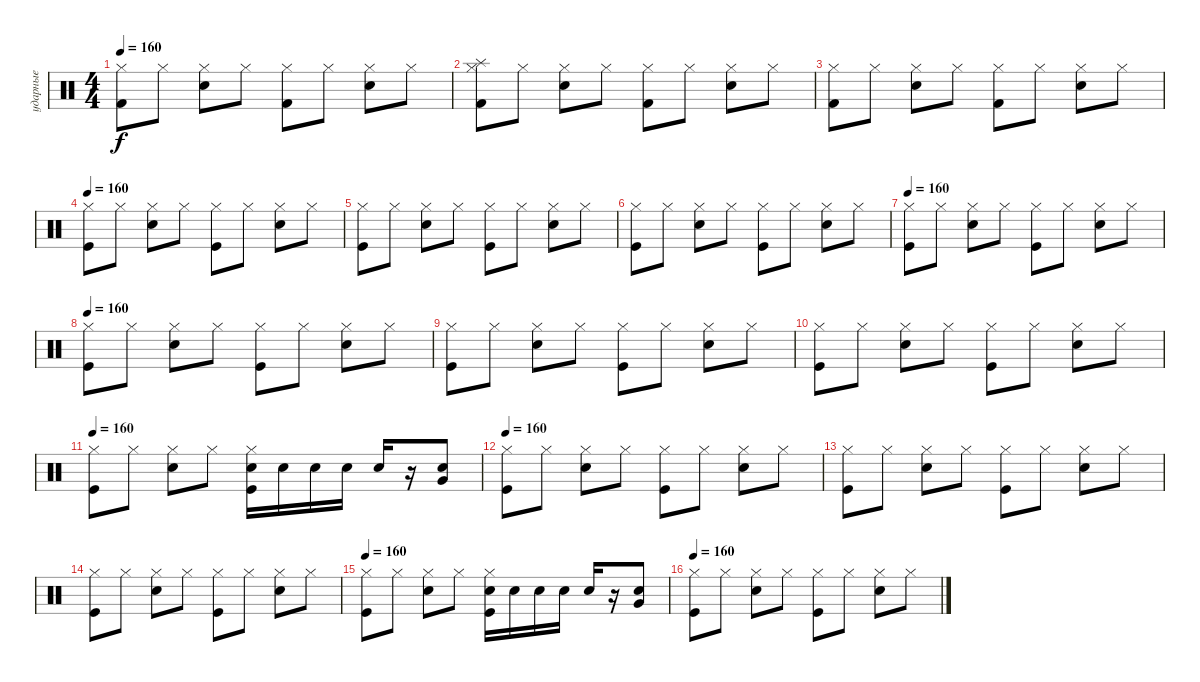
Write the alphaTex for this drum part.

\track ("ударные" "ударные") {instrument percussion}
\staff {score}
\articulation defaults
\ts (4 4)
\tempo 160
\clef neutral
\ks c
("Kick (hit) 2" "Hi-Hat (closed)").8{dy f} "Hi-Hat (closed)".8 ("Electric Snare (hit)" "Hi-Hat (closed)").8 "Hi-Hat (closed)".8 ("Kick (hit) 2" "Hi-Hat (closed)").8 "Hi-Hat (closed)".8 ("Electric Snare (hit)" "Hi-Hat (closed)").8 "Hi-Hat (closed)".8 |
("Splash (hit)" "Kick (hit) 2" "Hi-Hat (closed)").8 "Hi-Hat (closed)".8 ("Electric Snare (hit)" "Hi-Hat (closed)").8 "Hi-Hat (closed)".8 ("Kick (hit) 2" "Hi-Hat (closed)").8 "Hi-Hat (closed)".8 ("Electric Snare (hit)" "Hi-Hat (closed)").8 "Hi-Hat (closed)".8 |
("Kick (hit) 2" "Hi-Hat (closed)").8 "Hi-Hat (closed)".8 ("Electric Snare (hit)" "Hi-Hat (closed)").8 "Hi-Hat (closed)".8 ("Kick (hit) 2" "Hi-Hat (closed)").8 "Hi-Hat (closed)".8 ("Electric Snare (hit)" "Hi-Hat (closed)").8 "Hi-Hat (closed)".8 |
\tempo 160
("Kick (hit)" "Hi-Hat (closed)").8 "Hi-Hat (closed)".8 ("Hi-Hat (closed)" "Electric Snare (hit)").8 "Hi-Hat (closed)".8 ("Kick (hit)" "Hi-Hat (closed)").8 "Hi-Hat (closed)".8 ("Hi-Hat (closed)" "Electric Snare (hit)").8 "Hi-Hat (closed)".8 |
("Hi-Hat (closed)" "Kick (hit)").8 "Hi-Hat (closed)".8 ("Electric Snare (hit)" "Hi-Hat (closed)").8 "Hi-Hat (closed)".8 ("Hi-Hat (closed)" "Kick (hit)").8 "Hi-Hat (closed)".8 ("Hi-Hat (closed)" "Electric Snare (hit)").8 "Hi-Hat (closed)".8 |
("Hi-Hat (closed)" "Kick (hit)").8 "Hi-Hat (closed)".8 ("Hi-Hat (closed)" "Electric Snare (hit)").8 "Hi-Hat (closed)".8 ("Kick (hit)" "Hi-Hat (closed)").8 "Hi-Hat (closed)".8 ("Electric Snare (hit)" "Hi-Hat (closed)").8 "Hi-Hat (closed)".8 |
\tempo 160
("Kick (hit)" "Hi-Hat (closed)").8 "Hi-Hat (closed)".8 ("Hi-Hat (closed)" "Electric Snare (hit)").8 "Hi-Hat (closed)".8 ("Kick (hit)" "Hi-Hat (closed)").8 "Hi-Hat (closed)".8 ("Hi-Hat (closed)" "Electric Snare (hit)").8 "Hi-Hat (closed)".8 |
\tempo 160
("Kick (hit)" "Hi-Hat (closed)").8 "Hi-Hat (closed)".8 ("Hi-Hat (closed)" "Electric Snare (hit)").8 "Hi-Hat (closed)".8 ("Kick (hit)" "Hi-Hat (closed)").8 "Hi-Hat (closed)".8 ("Hi-Hat (closed)" "Electric Snare (hit)").8 "Hi-Hat (closed)".8 |
("Hi-Hat (closed)" "Kick (hit)").8 "Hi-Hat (closed)".8 ("Electric Snare (hit)" "Hi-Hat (closed)").8 "Hi-Hat (closed)".8 ("Hi-Hat (closed)" "Kick (hit)").8 "Hi-Hat (closed)".8 ("Hi-Hat (closed)" "Electric Snare (hit)").8 "Hi-Hat (closed)".8 |
("Hi-Hat (closed)" "Kick (hit)").8 "Hi-Hat (closed)".8 ("Hi-Hat (closed)" "Electric Snare (hit)").8 "Hi-Hat (closed)".8 ("Kick (hit)" "Hi-Hat (closed)").8 "Hi-Hat (closed)".8 ("Electric Snare (hit)" "Hi-Hat (closed)").8 "Hi-Hat (closed)".8 |
\tempo 160
("Hi-Hat (closed)" "Kick (hit)").8 "Hi-Hat (closed)".8 ("Electric Snare (hit)" "Hi-Hat (closed)").8 "Hi-Hat (closed)".8 ("Electric Snare (hit)" "Hi-Hat (closed)" "Kick (hit)").16 "Electric Snare (hit)".16 "Electric Snare (hit)".16 "Snare (hit) 2".16 "Snare (hit) 2".16 r.16 ("Very Low Tom (hit)" "Snare (hit) 2").8 |
\tempo 160
("Kick (hit)" "Hi-Hat (closed)").8 "Hi-Hat (closed)".8 ("Hi-Hat (closed)" "Electric Snare (hit)").8 "Hi-Hat (closed)".8 ("Kick (hit)" "Hi-Hat (closed)").8 "Hi-Hat (closed)".8 ("Hi-Hat (closed)" "Electric Snare (hit)").8 "Hi-Hat (closed)".8 |
("Hi-Hat (closed)" "Kick (hit)").8 "Hi-Hat (closed)".8 ("Electric Snare (hit)" "Hi-Hat (closed)").8 "Hi-Hat (closed)".8 ("Hi-Hat (closed)" "Kick (hit)").8 "Hi-Hat (closed)".8 ("Hi-Hat (closed)" "Electric Snare (hit)").8 "Hi-Hat (closed)".8 |
("Hi-Hat (closed)" "Kick (hit)").8 "Hi-Hat (closed)".8 ("Hi-Hat (closed)" "Electric Snare (hit)").8 "Hi-Hat (closed)".8 ("Kick (hit)" "Hi-Hat (closed)").8 "Hi-Hat (closed)".8 ("Electric Snare (hit)" "Hi-Hat (closed)").8 "Hi-Hat (closed)".8 |
\tempo 160
("Hi-Hat (closed)" "Kick (hit)").8 "Hi-Hat (closed)".8 ("Electric Snare (hit)" "Hi-Hat (closed)").8 "Hi-Hat (closed)".8 ("Electric Snare (hit)" "Hi-Hat (closed)" "Kick (hit)").16 "Electric Snare (hit)".16 "Electric Snare (hit)".16 "Snare (hit) 2".16 "Snare (hit) 2".16 r.16 ("Very Low Tom (hit)" "Snare (hit) 2").8 |
\tempo 160
("Kick (hit)" "Hi-Hat (closed)").8 "Hi-Hat (closed)".8 ("Hi-Hat (closed)" "Electric Snare (hit)").8 "Hi-Hat (closed)".8 ("Kick (hit)" "Hi-Hat (closed)").8 "Hi-Hat (closed)".8 ("Hi-Hat (closed)" "Electric Snare (hit)").8 "Hi-Hat (closed)".8
